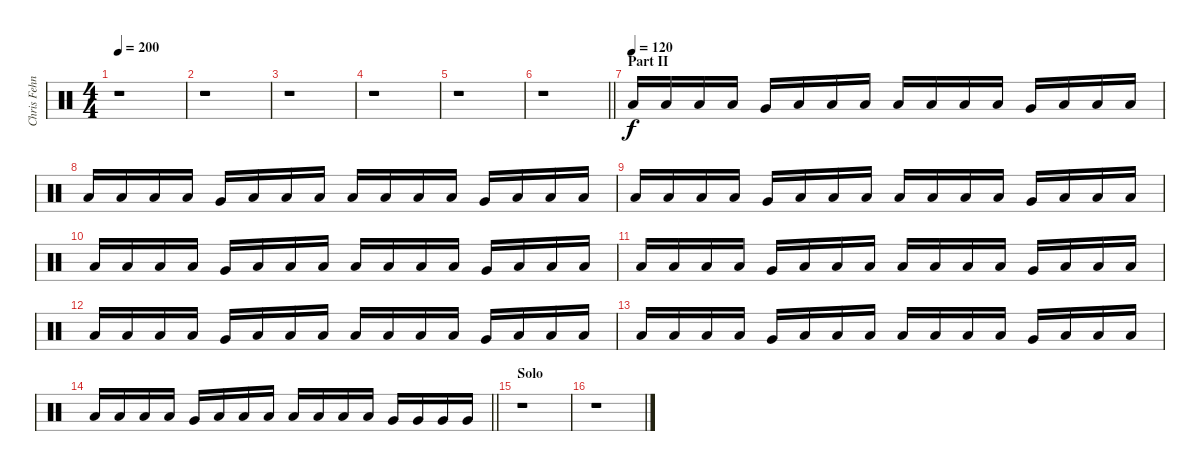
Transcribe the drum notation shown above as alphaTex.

\track ("Chris Fehn" "Chris Fehn") {instrument percussion}
\staff {score}
\articulation defaults
\ts (4 4)
\tempo 200
\clef neutral
\ks c
r.1{dy f} |
r.1 |
r.1 |
r.1 |
r.1 |
\barLineRight lightlight
r.1 |
\section ("" "Part II")
\tempo (120)
"Low Floor Tom (hit)".16 "Low Floor Tom (hit)".16 "Low Floor Tom (hit)".16 "Low Floor Tom (hit)".16 "Very Low Tom (hit)".16 "Low Floor Tom (hit)".16 "Low Floor Tom (hit)".16 "Low Floor Tom (hit)".16 "Low Floor Tom (hit)".16 "Low Floor Tom (hit)".16 "Low Floor Tom (hit)".16 "Low Floor Tom (hit)".16 "Very Low Tom (hit)".16 "Low Floor Tom (hit)".16 "Low Floor Tom (hit)".16 "Low Floor Tom (hit)".16 |
"Low Floor Tom (hit)".16 "Low Floor Tom (hit)".16 "Low Floor Tom (hit)".16 "Low Floor Tom (hit)".16 "Very Low Tom (hit)".16 "Low Floor Tom (hit)".16 "Low Floor Tom (hit)".16 "Low Floor Tom (hit)".16 "Low Floor Tom (hit)".16 "Low Floor Tom (hit)".16 "Low Floor Tom (hit)".16 "Low Floor Tom (hit)".16 "Very Low Tom (hit)".16 "Low Floor Tom (hit)".16 "Low Floor Tom (hit)".16 "Low Floor Tom (hit)".16 |
"Low Floor Tom (hit)".16 "Low Floor Tom (hit)".16 "Low Floor Tom (hit)".16 "Low Floor Tom (hit)".16 "Very Low Tom (hit)".16 "Low Floor Tom (hit)".16 "Low Floor Tom (hit)".16 "Low Floor Tom (hit)".16 "Low Floor Tom (hit)".16 "Low Floor Tom (hit)".16 "Low Floor Tom (hit)".16 "Low Floor Tom (hit)".16 "Very Low Tom (hit)".16 "Low Floor Tom (hit)".16 "Low Floor Tom (hit)".16 "Low Floor Tom (hit)".16 |
"Low Floor Tom (hit)".16 "Low Floor Tom (hit)".16 "Low Floor Tom (hit)".16 "Low Floor Tom (hit)".16 "Very Low Tom (hit)".16 "Low Floor Tom (hit)".16 "Low Floor Tom (hit)".16 "Low Floor Tom (hit)".16 "Low Floor Tom (hit)".16 "Low Floor Tom (hit)".16 "Low Floor Tom (hit)".16 "Low Floor Tom (hit)".16 "Very Low Tom (hit)".16 "Low Floor Tom (hit)".16 "Low Floor Tom (hit)".16 "Low Floor Tom (hit)".16 |
"Low Floor Tom (hit)".16 "Low Floor Tom (hit)".16 "Low Floor Tom (hit)".16 "Low Floor Tom (hit)".16 "Very Low Tom (hit)".16 "Low Floor Tom (hit)".16 "Low Floor Tom (hit)".16 "Low Floor Tom (hit)".16 "Low Floor Tom (hit)".16 "Low Floor Tom (hit)".16 "Low Floor Tom (hit)".16 "Low Floor Tom (hit)".16 "Very Low Tom (hit)".16 "Low Floor Tom (hit)".16 "Low Floor Tom (hit)".16 "Low Floor Tom (hit)".16 |
"Low Floor Tom (hit)".16 "Low Floor Tom (hit)".16 "Low Floor Tom (hit)".16 "Low Floor Tom (hit)".16 "Very Low Tom (hit)".16 "Low Floor Tom (hit)".16 "Low Floor Tom (hit)".16 "Low Floor Tom (hit)".16 "Low Floor Tom (hit)".16 "Low Floor Tom (hit)".16 "Low Floor Tom (hit)".16 "Low Floor Tom (hit)".16 "Very Low Tom (hit)".16 "Low Floor Tom (hit)".16 "Low Floor Tom (hit)".16 "Low Floor Tom (hit)".16 |
"Low Floor Tom (hit)".16 "Low Floor Tom (hit)".16 "Low Floor Tom (hit)".16 "Low Floor Tom (hit)".16 "Very Low Tom (hit)".16 "Low Floor Tom (hit)".16 "Low Floor Tom (hit)".16 "Low Floor Tom (hit)".16 "Low Floor Tom (hit)".16 "Low Floor Tom (hit)".16 "Low Floor Tom (hit)".16 "Low Floor Tom (hit)".16 "Very Low Tom (hit)".16 "Low Floor Tom (hit)".16 "Low Floor Tom (hit)".16 "Low Floor Tom (hit)".16 |
\barLineRight lightlight "Low Floor Tom (hit)".16 "Low Floor Tom (hit)".16 "Low Floor Tom (hit)".16 "Low Floor Tom (hit)".16 "Very Low Tom (hit)".16 "Low Floor Tom (hit)".16 "Low Floor Tom (hit)".16 "Low Floor Tom (hit)".16 "Low Floor Tom (hit)".16 "Low Floor Tom (hit)".16 "Low Floor Tom (hit)".16 "Low Floor Tom (hit)".16 "Very Low Tom (hit)".16 "Very Low Tom (hit)".16 "Very Low Tom (hit)".16 "Very Low Tom (hit)".16
|
\section ("" "Solo")
r.1 |
r.1
